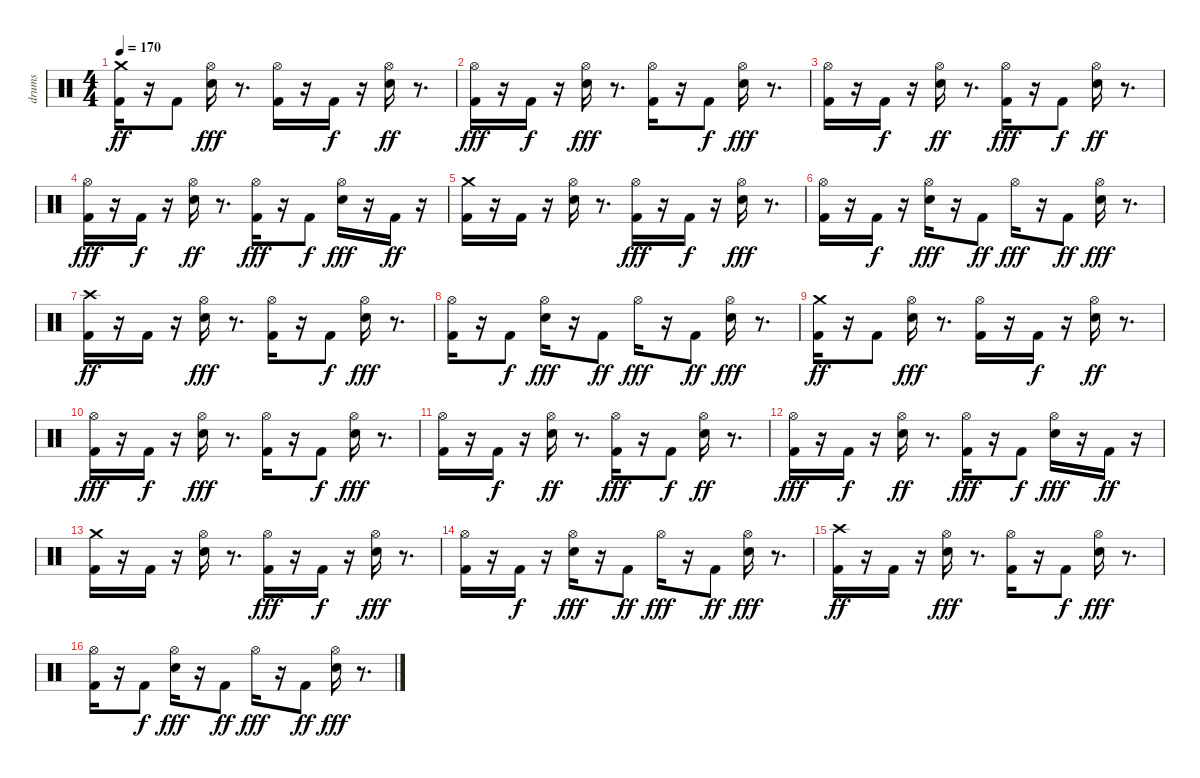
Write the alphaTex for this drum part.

\track ("drums" "drums") {instrument percussion}
\staff {score}
\articulation defaults
\ts (4 4)
\tempo 170
\clef neutral
\ks c
("Kick (hit) 2" "Crash medium (hit)").16{dy ff} r.16 "Kick (hit) 2".8 ("Hi-Hat (open)" "Snare (hit) 2").16{dy fff} r.8{d} ("Kick (hit) 2" "Hi-Hat (open)").16 r.16 "Kick (hit) 2".16{dy f} r.16 ("Hi-Hat (open)" "Snare (hit) 2").16{dy ff} r.8{d} |
("Hi-Hat (open)" "Kick (hit) 2").16{dy fff} r.16 "Kick (hit) 2".16{dy f} r.16 ("Snare (hit) 2" "Hi-Hat (open)").16{dy fff} r.8{d} ("Kick (hit) 2" "Hi-Hat (open)").16 r.16 "Kick (hit) 2".8{dy f} ("Snare (hit) 2" "Hi-Hat (open)").16{dy fff} r.8{d} |
("Kick (hit) 2" "Hi-Hat (open)").16 r.16 "Kick (hit) 2".16{dy f} r.16 ("Hi-Hat (open)" "Snare (hit) 2").16{dy ff} r.8{d} ("Kick (hit) 2" "Hi-Hat (open)").16{dy fff} r.16 "Kick (hit) 2".8{dy f} ("Hi-Hat (open)" "Snare (hit) 2").16{dy ff} r.8{d} |
("Kick (hit) 2" "Hi-Hat (open)").16{dy fff} r.16 "Kick (hit) 2".16{dy f} r.16 ("Hi-Hat (open)" "Snare (hit) 2").16{dy ff} r.8{d} ("Kick (hit) 2" "Hi-Hat (open)").16{dy fff} r.16 "Kick (hit) 2".8{dy f} ("Snare (hit) 2" "Hi-Hat (open)").16{dy fff} r.16 "Kick (hit) 2".16{dy ff} r.16 |
("Crash medium (hit)" "Kick (hit) 2").16 r.16 "Kick (hit) 2".16 r.16 ("Snare (hit) 2" "Hi-Hat (open)").16 r.8{d} ("Kick (hit) 2" "Hi-Hat (open)").16{dy fff} r.16 "Kick (hit) 2".16{dy f} r.16 ("Snare (hit) 2" "Hi-Hat (open)").16{dy fff} r.8{d} |
("Kick (hit) 2" "Hi-Hat (open)").16 r.16 "Kick (hit) 2".16{dy f} r.16 ("Snare (hit) 2" "Hi-Hat (open)").16{dy fff} r.16 "Kick (hit) 2".8{dy ff} "Hi-Hat (open)".16{dy fff} r.16 "Kick (hit) 2".8{dy ff} ("Snare (hit) 2" "Hi-Hat (open)").16{dy fff} r.8{d} |
("Crash high (hit)" "Kick (hit) 2").16{dy ff} r.16 "Kick (hit) 2".16 r.16 ("Hi-Hat (open)" "Snare (hit) 2").16{dy fff} r.8{d} ("Kick (hit) 2" "Hi-Hat (open)").16 r.16 "Kick (hit) 2".8{dy f} ("Snare (hit) 2" "Hi-Hat (open)").16{dy fff} r.8{d} |
("Kick (hit) 2" "Hi-Hat (open)").16 r.16 "Kick (hit) 2".8{dy f} ("Snare (hit) 2" "Hi-Hat (open)").16{dy fff} r.16 "Kick (hit) 2".8{dy ff} "Hi-Hat (open)".16{dy fff} r.16 "Kick (hit) 2".8{dy ff} ("Snare (hit) 2" "Hi-Hat (open)").16{dy fff} r.8{d} |
("Kick (hit) 2" "Crash medium (hit)").16{dy ff} r.16 "Kick (hit) 2".8 ("Hi-Hat (open)" "Snare (hit) 2").16{dy fff} r.8{d} ("Kick (hit) 2" "Hi-Hat (open)").16 r.16 "Kick (hit) 2".16{dy f} r.16 ("Hi-Hat (open)" "Snare (hit) 2").16{dy ff} r.8{d} |
("Hi-Hat (open)" "Kick (hit) 2").16{dy fff} r.16 "Kick (hit) 2".16{dy f} r.16 ("Snare (hit) 2" "Hi-Hat (open)").16{dy fff} r.8{d} ("Kick (hit) 2" "Hi-Hat (open)").16 r.16 "Kick (hit) 2".8{dy f} ("Snare (hit) 2" "Hi-Hat (open)").16{dy fff} r.8{d} |
("Kick (hit) 2" "Hi-Hat (open)").16 r.16 "Kick (hit) 2".16{dy f} r.16 ("Hi-Hat (open)" "Snare (hit) 2").16{dy ff} r.8{d} ("Kick (hit) 2" "Hi-Hat (open)").16{dy fff} r.16 "Kick (hit) 2".8{dy f} ("Hi-Hat (open)" "Snare (hit) 2").16{dy ff} r.8{d} |
("Kick (hit) 2" "Hi-Hat (open)").16{dy fff} r.16 "Kick (hit) 2".16{dy f} r.16 ("Hi-Hat (open)" "Snare (hit) 2").16{dy ff} r.8{d} ("Kick (hit) 2" "Hi-Hat (open)").16{dy fff} r.16 "Kick (hit) 2".8{dy f} ("Snare (hit) 2" "Hi-Hat (open)").16{dy fff} r.16 "Kick (hit) 2".16{dy ff} r.16 |
("Crash medium (hit)" "Kick (hit) 2").16 r.16 "Kick (hit) 2".16 r.16 ("Snare (hit) 2" "Hi-Hat (open)").16 r.8{d} ("Kick (hit) 2" "Hi-Hat (open)").16{dy fff} r.16 "Kick (hit) 2".16{dy f} r.16 ("Snare (hit) 2" "Hi-Hat (open)").16{dy fff} r.8{d} |
("Kick (hit) 2" "Hi-Hat (open)").16 r.16 "Kick (hit) 2".16{dy f} r.16 ("Snare (hit) 2" "Hi-Hat (open)").16{dy fff} r.16 "Kick (hit) 2".8{dy ff} "Hi-Hat (open)".16{dy fff} r.16 "Kick (hit) 2".8{dy ff} ("Snare (hit) 2" "Hi-Hat (open)").16{dy fff} r.8{d} |
("Crash high (hit)" "Kick (hit) 2").16{dy ff} r.16 "Kick (hit) 2".16 r.16 ("Hi-Hat (open)" "Snare (hit) 2").16{dy fff} r.8{d} ("Kick (hit) 2" "Hi-Hat (open)").16 r.16 "Kick (hit) 2".8{dy f} ("Snare (hit) 2" "Hi-Hat (open)").16{dy fff} r.8{d} |
("Kick (hit) 2" "Hi-Hat (open)").16 r.16 "Kick (hit) 2".8{dy f} ("Snare (hit) 2" "Hi-Hat (open)").16{dy fff} r.16 "Kick (hit) 2".8{dy ff} "Hi-Hat (open)".16{dy fff} r.16 "Kick (hit) 2".8{dy ff} ("Snare (hit) 2" "Hi-Hat (open)").16{dy fff} r.8{d}
